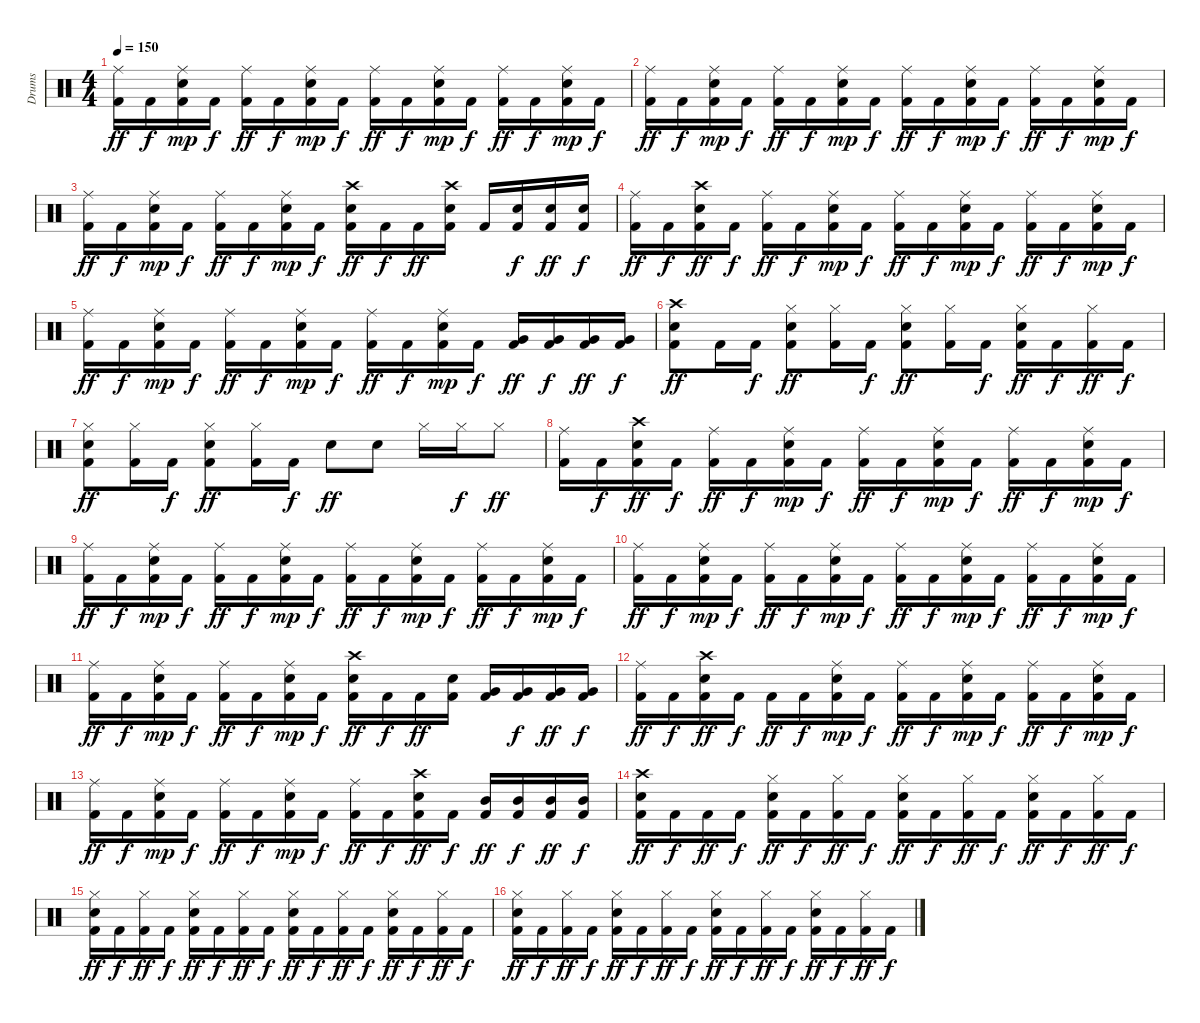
\track ("Drums" "Drums") {instrument percussion}
\staff {score}
\articulation defaults
\ts (4 4)
\tempo 150
\clef neutral
\ks c
("Ride (middle)" "Kick (hit) 2").16{dy ff} "Kick (hit) 2".16{dy f} ("Kick (hit) 2" "Snare (hit) 2" "Ride (middle)").16{dy mp} "Kick (hit) 2".16{dy f} ("Ride (middle)" "Kick (hit) 2").16{dy ff} "Kick (hit) 2".16{dy f} ("Kick (hit) 2" "Snare (hit) 2" "Ride (middle)").16{dy mp} "Kick (hit) 2".16{dy f} ("Ride (middle)" "Kick (hit) 2").16{dy ff} "Kick (hit) 2".16{dy f} ("Kick (hit) 2" "Snare (hit) 2" "Ride (middle)").16{dy mp} "Kick (hit) 2".16{dy f} ("Ride (middle)" "Kick (hit) 2").16{dy ff} "Kick (hit) 2".16{dy f} ("Kick (hit) 2" "Snare (hit) 2" "Ride (middle)").16{dy mp} "Kick (hit) 2".16{dy f} |
("Ride (middle)" "Kick (hit) 2").16{dy ff} "Kick (hit) 2".16{dy f} ("Kick (hit) 2" "Snare (hit) 2" "Ride (middle)").16{dy mp} "Kick (hit) 2".16{dy f} ("Ride (middle)" "Kick (hit) 2").16{dy ff} "Kick (hit) 2".16{dy f} ("Kick (hit) 2" "Snare (hit) 2" "Ride (middle)").16{dy mp} "Kick (hit) 2".16{dy f} ("Ride (middle)" "Kick (hit) 2").16{dy ff} "Kick (hit) 2".16{dy f} ("Kick (hit) 2" "Snare (hit) 2" "Ride (middle)").16{dy mp} "Kick (hit) 2".16{dy f} ("Ride (middle)" "Kick (hit) 2").16{dy ff} "Kick (hit) 2".16{dy f} ("Kick (hit) 2" "Snare (hit) 2" "Ride (middle)").16{dy mp} "Kick (hit) 2".16{dy f} |
("Ride (middle)" "Kick (hit) 2").16{dy ff} "Kick (hit) 2".16{dy f} ("Kick (hit) 2" "Snare (hit) 2" "Ride (middle)").16{dy mp} "Kick (hit) 2".16{dy f} ("Ride (middle)" "Kick (hit) 2").16{dy ff} "Kick (hit) 2".16{dy f} ("Kick (hit) 2" "Snare (hit) 2" "Ride (middle)").16{dy mp} "Kick (hit) 2".16{dy f} ("Kick (hit) 2" "Crash high (hit)" "Snare (hit) 2").16{dy ff} "Kick (hit) 2".16{dy f} "Kick (hit) 2".16{dy ff} ("Kick (hit) 2" "Crash high (hit)" "Snare (hit) 2").16 "Kick (hit) 2".16 ("Snare (hit) 2" "Kick (hit) 2").16{dy f} ("Snare (hit) 2" "Kick (hit) 2").16{dy ff} ("Snare (hit) 2" "Kick (hit) 2").16{dy f} |
("Ride (middle)" "Kick (hit) 2").16{dy ff} "Kick (hit) 2".16{dy f} ("Snare (hit) 2" "Crash high (hit)" "Kick (hit) 2").16{dy ff} "Kick (hit) 2".16{dy f} ("Ride (middle)" "Kick (hit) 2").16{dy ff} "Kick (hit) 2".16{dy f} ("Kick (hit) 2" "Snare (hit) 2" "Ride (middle)").16{dy mp} "Kick (hit) 2".16{dy f} ("Ride (middle)" "Kick (hit) 2").16{dy ff} "Kick (hit) 2".16{dy f} ("Kick (hit) 2" "Snare (hit) 2" "Ride (middle)").16{dy mp} "Kick (hit) 2".16{dy f} ("Ride (middle)" "Kick (hit) 2").16{dy ff} "Kick (hit) 2".16{dy f} ("Kick (hit) 2" "Snare (hit) 2" "Ride (middle)").16{dy mp} "Kick (hit) 2".16{dy f} |
("Ride (middle)" "Kick (hit) 2").16{dy ff} "Kick (hit) 2".16{dy f} ("Kick (hit) 2" "Snare (hit) 2" "Ride (middle)").16{dy mp} "Kick (hit) 2".16{dy f} ("Ride (middle)" "Kick (hit) 2").16{dy ff} "Kick (hit) 2".16{dy f} ("Kick (hit) 2" "Snare (hit) 2" "Ride (middle)").16{dy mp} "Kick (hit) 2".16{dy f} ("Ride (middle)" "Kick (hit) 2").16{dy ff} "Kick (hit) 2".16{dy f} ("Kick (hit) 2" "Snare (hit) 2" "Ride (middle)").16{dy mp} "Kick (hit) 2".16{dy f} ("Very Low Tom (hit)" "Kick (hit) 2").16{dy ff} ("Very Low Tom (hit)" "Kick (hit) 2").16{dy f} ("Very Low Tom (hit)" "Kick (hit) 2").16{dy ff} ("Very Low Tom (hit)" "Kick (hit) 2").16{dy f} |
("Kick (hit) 2" "Snare (hit) 2" "Crash high (hit)").8{dy ff} "Kick (hit) 2".16 "Kick (hit) 2".16{dy f} ("Kick (hit) 2" "Hi-Hat (closed)" "Snare (hit) 2").8{dy ff} ("Hi-Hat (closed)" "Kick (hit) 2").16 "Kick (hit) 2".16{dy f} ("Kick (hit) 2" "Hi-Hat (closed)" "Snare (hit) 2").8{dy ff} ("Hi-Hat (closed)" "Kick (hit) 2").16 "Kick (hit) 2".16{dy f} ("Kick (hit) 2" "Hi-Hat (closed)" "Snare (hit) 2").16{dy ff} "Kick (hit) 2".16{dy f} ("Hi-Hat (closed)" "Kick (hit) 2").16{dy ff} "Kick (hit) 2".16{dy f} |
("Kick (hit) 2" "Hi-Hat (closed)" "Snare (hit) 2").8{dy ff} ("Hi-Hat (closed)" "Kick (hit) 2").16 "Kick (hit) 2".16{dy f} ("Kick (hit) 2" "Hi-Hat (closed)" "Snare (hit) 2").8{dy ff} ("Hi-Hat (closed)" "Kick (hit) 2").16 "Kick (hit) 2".16{dy f} "Snare (hit) 2".8{dy ff} "Snare (hit) 2".8 "Hi-Hat (closed)".16 "Hi-Hat (closed)".16{dy f} "Hi-Hat (closed)".8{dy ff} |
("Ride (middle)" "Kick (hit) 2").16 "Kick (hit) 2".16{dy f} ("Snare (hit) 2" "Crash high (hit)" "Kick (hit) 2").16{dy ff} "Kick (hit) 2".16{dy f} ("Ride (middle)" "Kick (hit) 2").16{dy ff} "Kick (hit) 2".16{dy f} ("Kick (hit) 2" "Snare (hit) 2" "Ride (middle)").16{dy mp} "Kick (hit) 2".16{dy f} ("Ride (middle)" "Kick (hit) 2").16{dy ff} "Kick (hit) 2".16{dy f} ("Kick (hit) 2" "Snare (hit) 2" "Ride (middle)").16{dy mp} "Kick (hit) 2".16{dy f} ("Ride (middle)" "Kick (hit) 2").16{dy ff} "Kick (hit) 2".16{dy f} ("Kick (hit) 2" "Snare (hit) 2" "Ride (middle)").16{dy mp} "Kick (hit) 2".16{dy f} |
("Ride (middle)" "Kick (hit) 2").16{dy ff} "Kick (hit) 2".16{dy f} ("Kick (hit) 2" "Snare (hit) 2" "Ride (middle)").16{dy mp} "Kick (hit) 2".16{dy f} ("Ride (middle)" "Kick (hit) 2").16{dy ff} "Kick (hit) 2".16{dy f} ("Kick (hit) 2" "Snare (hit) 2" "Ride (middle)").16{dy mp} "Kick (hit) 2".16{dy f} ("Ride (middle)" "Kick (hit) 2").16{dy ff} "Kick (hit) 2".16{dy f} ("Kick (hit) 2" "Snare (hit) 2" "Ride (middle)").16{dy mp} "Kick (hit) 2".16{dy f} ("Ride (middle)" "Kick (hit) 2").16{dy ff} "Kick (hit) 2".16{dy f} ("Kick (hit) 2" "Snare (hit) 2" "Ride (middle)").16{dy mp} "Kick (hit) 2".16{dy f} |
("Ride (middle)" "Kick (hit) 2").16{dy ff} "Kick (hit) 2".16{dy f} ("Kick (hit) 2" "Snare (hit) 2" "Ride (middle)").16{dy mp} "Kick (hit) 2".16{dy f} ("Ride (middle)" "Kick (hit) 2").16{dy ff} "Kick (hit) 2".16{dy f} ("Kick (hit) 2" "Snare (hit) 2" "Ride (middle)").16{dy mp} "Kick (hit) 2".16{dy f} ("Ride (middle)" "Kick (hit) 2").16{dy ff} "Kick (hit) 2".16{dy f} ("Kick (hit) 2" "Snare (hit) 2" "Ride (middle)").16{dy mp} "Kick (hit) 2".16{dy f} ("Ride (middle)" "Kick (hit) 2").16{dy ff} "Kick (hit) 2".16{dy f} ("Kick (hit) 2" "Snare (hit) 2" "Ride (middle)").16{dy mp} "Kick (hit) 2".16{dy f} |
("Ride (middle)" "Kick (hit) 2").16{dy ff} "Kick (hit) 2".16{dy f} ("Kick (hit) 2" "Snare (hit) 2" "Ride (middle)").16{dy mp} "Kick (hit) 2".16{dy f} ("Ride (middle)" "Kick (hit) 2").16{dy ff} "Kick (hit) 2".16{dy f} ("Kick (hit) 2" "Snare (hit) 2" "Ride (middle)").16{dy mp} "Kick (hit) 2".16{dy f} ("Kick (hit) 2" "Crash high (hit)" "Snare (hit) 2").16{dy ff} "Kick (hit) 2".16{dy f} "Kick (hit) 2".16{dy ff} ("Snare (hit) 2" "Kick (hit) 2").16 ("Very Low Tom (hit)" "Kick (hit) 2").16 ("Very Low Tom (hit)" "Kick (hit) 2").16{dy f} ("Very Low Tom (hit)" "Kick (hit) 2").16{dy ff} ("Very Low Tom (hit)" "Kick (hit) 2").16{dy f} |
("Ride (middle)" "Kick (hit) 2").16{dy ff} "Kick (hit) 2".16{dy f} ("Snare (hit) 2" "Crash high (hit)" "Kick (hit) 2").16{dy ff} "Kick (hit) 2".16{dy f} "Kick (hit) 2".16{dy ff} "Kick (hit) 2".16{dy f} ("Kick (hit) 2" "Snare (hit) 2" "Ride (middle)").16{dy mp} "Kick (hit) 2".16{dy f} ("Ride (middle)" "Kick (hit) 2").16{dy ff} "Kick (hit) 2".16{dy f} ("Kick (hit) 2" "Snare (hit) 2" "Ride (middle)").16{dy mp} "Kick (hit) 2".16{dy f} ("Ride (middle)" "Kick (hit) 2").16{dy ff} "Kick (hit) 2".16{dy f} ("Kick (hit) 2" "Snare (hit) 2" "Ride (middle)").16{dy mp} "Kick (hit) 2".16{dy f} |
("Ride (middle)" "Kick (hit) 2").16{dy ff} "Kick (hit) 2".16{dy f} ("Kick (hit) 2" "Snare (hit) 2" "Ride (middle)").16{dy mp} "Kick (hit) 2".16{dy f} ("Ride (middle)" "Kick (hit) 2").16{dy ff} "Kick (hit) 2".16{dy f} ("Kick (hit) 2" "Snare (hit) 2" "Ride (middle)").16{dy mp} "Kick (hit) 2".16{dy f} ("Ride (middle)" "Kick (hit) 2").16{dy ff} "Kick (hit) 2".16{dy f} ("Kick (hit) 2" "Crash high (hit)" "Snare (hit) 2").16{dy ff} "Kick (hit) 2".16{dy f} ("Mid Tom (hit)" "Kick (hit) 2").16{dy ff} ("Mid Tom (hit)" "Kick (hit) 2").16{dy f} ("Mid Tom (hit)" "Kick (hit) 2").16{dy ff} ("Mid Tom (hit)" "Kick (hit) 2").16{dy f} |
("Crash high (hit)" "Snare (hit) 2" "Kick (hit) 2").16{dy ff} "Kick (hit) 2".16{dy f} "Kick (hit) 2".16{dy ff} "Kick (hit) 2".16{dy f} ("Kick (hit) 2" "Snare (hit) 2" "Hi-Hat (closed)").16{dy ff} "Kick (hit) 2".16{dy f} ("Hi-Hat (closed)" "Kick (hit) 2").16{dy ff} "Kick (hit) 2".16{dy f} ("Kick (hit) 2" "Snare (hit) 2" "Hi-Hat (closed)").16{dy ff} "Kick (hit) 2".16{dy f} ("Hi-Hat (closed)" "Kick (hit) 2").16{dy ff} "Kick (hit) 2".16{dy f} ("Kick (hit) 2" "Snare (hit) 2" "Hi-Hat (closed)").16{dy ff} "Kick (hit) 2".16{dy f} ("Hi-Hat (closed)" "Kick (hit) 2").16{dy ff} "Kick (hit) 2".16{dy f} |
("Kick (hit) 2" "Snare (hit) 2" "Hi-Hat (closed)").16{dy ff} "Kick (hit) 2".16{dy f} ("Hi-Hat (closed)" "Kick (hit) 2").16{dy ff} "Kick (hit) 2".16{dy f} ("Kick (hit) 2" "Snare (hit) 2" "Hi-Hat (closed)").16{dy ff} "Kick (hit) 2".16{dy f} ("Hi-Hat (closed)" "Kick (hit) 2").16{dy ff} "Kick (hit) 2".16{dy f} ("Kick (hit) 2" "Snare (hit) 2" "Hi-Hat (closed)").16{dy ff} "Kick (hit) 2".16{dy f} ("Hi-Hat (closed)" "Kick (hit) 2").16{dy ff} "Kick (hit) 2".16{dy f} ("Kick (hit) 2" "Snare (hit) 2" "Hi-Hat (closed)").16{dy ff} "Kick (hit) 2".16{dy f} ("Hi-Hat (closed)" "Kick (hit) 2").16{dy ff} "Kick (hit) 2".16{dy f} |
("Kick (hit) 2" "Snare (hit) 2" "Hi-Hat (closed)").16{dy ff} "Kick (hit) 2".16{dy f} ("Hi-Hat (closed)" "Kick (hit) 2").16{dy ff} "Kick (hit) 2".16{dy f} ("Kick (hit) 2" "Snare (hit) 2" "Hi-Hat (closed)").16{dy ff} "Kick (hit) 2".16{dy f} ("Hi-Hat (closed)" "Kick (hit) 2").16{dy ff} "Kick (hit) 2".16{dy f} ("Kick (hit) 2" "Snare (hit) 2" "Hi-Hat (closed)").16{dy ff} "Kick (hit) 2".16{dy f} ("Hi-Hat (closed)" "Kick (hit) 2").16{dy ff} "Kick (hit) 2".16{dy f} ("Kick (hit) 2" "Snare (hit) 2" "Hi-Hat (closed)").16{dy ff} "Kick (hit) 2".16{dy f} ("Hi-Hat (closed)" "Kick (hit) 2").16{dy ff} "Kick (hit) 2".16{dy f}
